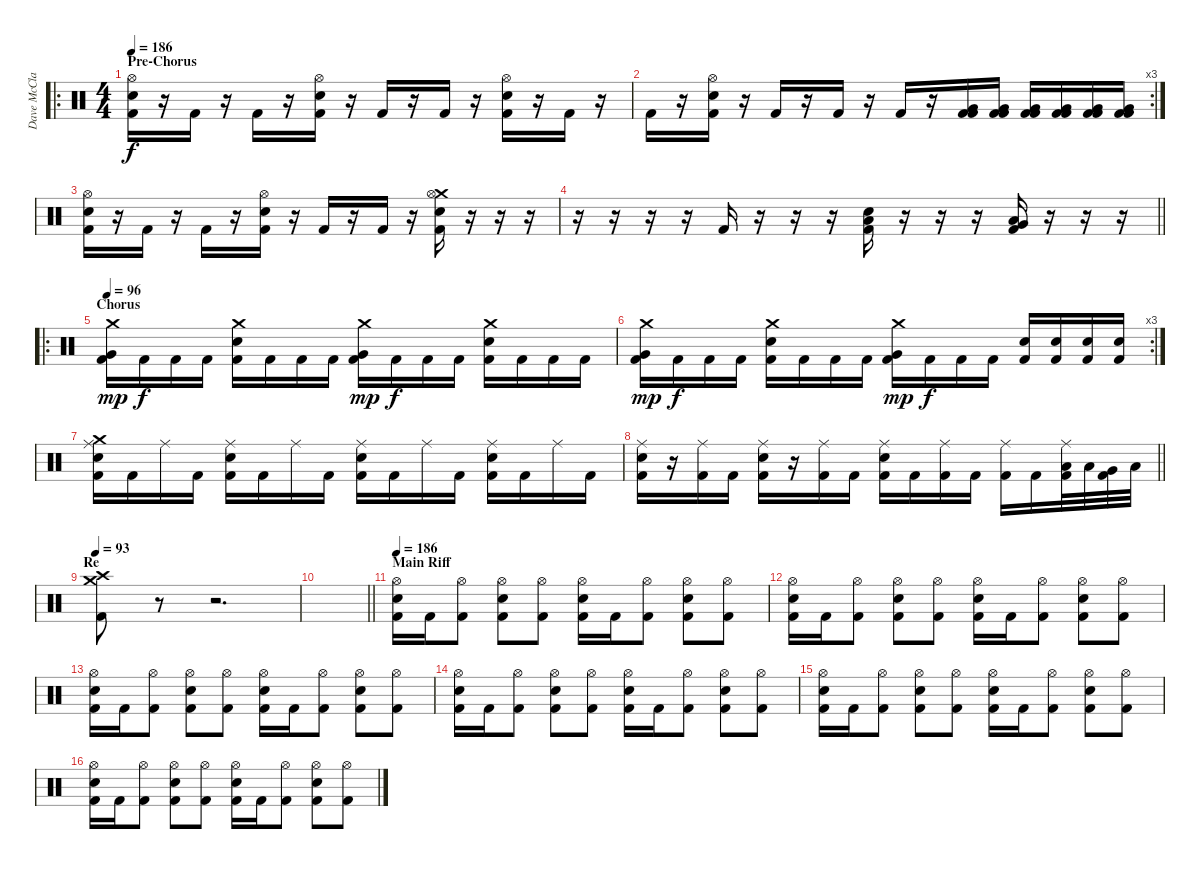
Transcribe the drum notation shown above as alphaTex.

\track ("Dave McClain" "Dave McCla") {instrument percussion}
\staff {score}
\articulation defaults
\ro
\ts (4 4)
\section ("" "Pre-Chorus")
\tempo 186
\clef neutral
\ks c
("Hi-Hat (open)" "Snare (hit) 2" "Kick (hit) 2").16{dy f} r.16 "Kick (hit) 2".16 r.16 "Kick (hit) 2".16 r.16 ("Hi-Hat (open)" "Snare (hit) 2" "Kick (hit) 2").16 r.16 "Kick (hit) 2".16 r.16 "Kick (hit) 2".16 r.16 ("Hi-Hat (open)" "Snare (hit) 2" "Kick (hit) 2").16 r.16 "Kick (hit) 2".16 r.16 |
\rc 3 "Kick (hit) 2".16
r.16 ("Hi-Hat (open)" "Snare (hit) 2" "Kick (hit) 2").16 r.16 "Kick (hit) 2".16 r.16 "Kick (hit) 2".16 r.16 "Kick (hit) 2".16 r.16 ("Very Low Tom (hit)" "Kick (hit) 2" "Kick (hit) 2").16 ("Very Low Tom (hit)" "Kick (hit) 2" "Kick (hit) 2").16 ("Very Low Tom (hit)" "Kick (hit) 2" "Kick (hit) 2").16 ("Very Low Tom (hit)" "Kick (hit) 2" "Kick (hit) 2").16 ("Very Low Tom (hit)" "Kick (hit) 2" "Kick (hit) 2").16 ("Very Low Tom (hit)" "Kick (hit) 2" "Kick (hit) 2").16 |
("Hi-Hat (open)" "Snare (hit) 2" "Kick (hit) 2").16 r.16 "Kick (hit) 2".16 r.16 "Kick (hit) 2".16 r.16 ("Hi-Hat (open)" "Snare (hit) 2" "Kick (hit) 2").16 r.16 "Kick (hit) 2".16 r.16 "Kick (hit) 2".16 r.16 ("Crash medium (hit)" "Hi-Hat (open)" "Snare (hit) 2" "Kick (hit) 2").16 r.16 r.16 r.16 |
\barLineRight lightlight
r.16 r.16 r.16 r.16 "Kick (hit) 2".16 r.16 r.16 r.16 ("Low Tom (hit)" "Snare (hit) 2" "Kick (hit) 2").16 r.16 r.16 r.16 ("Very Low Tom (hit)" "Low Tom (hit)" "Kick (hit) 2").16 r.16 r.16 r.16 |
\ro
\section ("" "Chorus")
\tempo 96
("Crash medium (hit)" "Very Low Tom (hit)" "Kick (hit) 2").16{dy mp} "Kick (hit) 2".16{dy f} "Kick (hit) 2".16 "Kick (hit) 2".16 ("Crash medium (hit)" "Snare (hit) 2" "Kick (hit) 2").16 "Kick (hit) 2".16 "Kick (hit) 2".16 "Kick (hit) 2".16 ("Crash medium (hit)" "Very Low Tom (hit)" "Kick (hit) 2").16{dy mp} "Kick (hit) 2".16{dy f} "Kick (hit) 2".16 "Kick (hit) 2".16 ("Crash medium (hit)" "Snare (hit) 2" "Kick (hit) 2").16 "Kick (hit) 2".16 "Kick (hit) 2".16 "Kick (hit) 2".16 |
\rc 3
("Crash medium (hit)" "Very Low Tom (hit)" "Kick (hit) 2").16{dy mp} "Kick (hit) 2".16{dy f} "Kick (hit) 2".16 "Kick (hit) 2".16 ("Crash medium (hit)" "Snare (hit) 2" "Kick (hit) 2").16 "Kick (hit) 2".16 "Kick (hit) 2".16 "Kick (hit) 2".16 ("Crash medium (hit)" "Very Low Tom (hit)" "Kick (hit) 2").16{dy mp} "Kick (hit) 2".16{dy f} "Kick (hit) 2".16 "Kick (hit) 2".16 ("Snare (hit) 2" "Kick (hit) 2").16 ("Snare (hit) 2" "Kick (hit) 2").16 ("Snare (hit) 2" "Kick (hit) 2").16 ("Snare (hit) 2" "Kick (hit) 2").16 |
("Crash medium (hit)" "Ride (middle)" "Snare (hit) 2" "Kick (hit) 2").16 "Kick (hit) 2".16 "Ride (middle)".16 "Kick (hit) 2".16 ("Ride (middle)" "Snare (hit) 2" "Kick (hit) 2").16 "Kick (hit) 2".16 "Ride (middle)".16 "Kick (hit) 2".16 ("Ride (middle)" "Snare (hit) 2" "Kick (hit) 2").16 "Kick (hit) 2".16 "Ride (middle)".16 "Kick (hit) 2".16 ("Ride (middle)" "Snare (hit) 2" "Kick (hit) 2").16 "Kick (hit) 2".16 "Ride (middle)".16 "Kick (hit) 2".16 |
\barLineRight lightlight
("Ride (middle)" "Snare (hit) 2" "Kick (hit) 2").16 r.16 ("Ride (middle)" "Kick (hit) 2").16 "Kick (hit) 2".16 ("Ride (middle)" "Snare (hit) 2" "Kick (hit) 2").16 r.16 ("Ride (middle)" "Kick (hit) 2").16 "Kick (hit) 2".16 ("Ride (middle)" "Snare (hit) 2" "Kick (hit) 2").16 "Kick (hit) 2".16 ("Ride (middle)" "Kick (hit) 2").16 "Kick (hit) 2".16 ("Ride (middle)" "Kick (hit) 2").16 "Kick (hit) 2".16 ("Ride (middle)" "Low Tom (hit)" "Kick (hit) 2").32 "Low Tom (hit)".32 ("Very Low Tom (hit)" "Kick (hit) 2").32 "Low Floor Tom (hit)".32 |
\section ("" "Re")
\tempo 93
("Crash high (hit)" "Crash medium (hit)" "Kick (hit) 2").8 r.8 r.2{d} |
\barLineRight lightlight
|
\section ("" "Main Riff")
\tempo 186
("Hi-Hat (open)" "Snare (hit) 2" "Kick (hit) 2").16 "Kick (hit) 2".16 ("Hi-Hat (open)" "Kick (hit) 2").8 ("Hi-Hat (open)" "Snare (hit) 2" "Kick (hit) 2").8 ("Hi-Hat (open)" "Kick (hit) 2").8 ("Hi-Hat (open)" "Snare (hit) 2" "Kick (hit) 2").16 "Kick (hit) 2".16 ("Hi-Hat (open)" "Kick (hit) 2").8 ("Hi-Hat (open)" "Snare (hit) 2" "Kick (hit) 2").8 ("Hi-Hat (open)" "Kick (hit) 2").8 |
("Hi-Hat (open)" "Snare (hit) 2" "Kick (hit) 2").16 "Kick (hit) 2".16 ("Hi-Hat (open)" "Kick (hit) 2").8 ("Hi-Hat (open)" "Snare (hit) 2" "Kick (hit) 2").8 ("Hi-Hat (open)" "Kick (hit) 2").8 ("Hi-Hat (open)" "Snare (hit) 2" "Kick (hit) 2").16 "Kick (hit) 2".16 ("Hi-Hat (open)" "Kick (hit) 2").8 ("Hi-Hat (open)" "Snare (hit) 2" "Kick (hit) 2").8 ("Hi-Hat (open)" "Kick (hit) 2").8 |
("Hi-Hat (open)" "Snare (hit) 2" "Kick (hit) 2").16 "Kick (hit) 2".16 ("Hi-Hat (open)" "Kick (hit) 2").8 ("Hi-Hat (open)" "Snare (hit) 2" "Kick (hit) 2").8 ("Hi-Hat (open)" "Kick (hit) 2").8 ("Hi-Hat (open)" "Snare (hit) 2" "Kick (hit) 2").16 "Kick (hit) 2".16 ("Hi-Hat (open)" "Kick (hit) 2").8 ("Hi-Hat (open)" "Snare (hit) 2" "Kick (hit) 2").8 ("Hi-Hat (open)" "Kick (hit) 2").8 |
("Hi-Hat (open)" "Snare (hit) 2" "Kick (hit) 2").16 "Kick (hit) 2".16 ("Hi-Hat (open)" "Kick (hit) 2").8 ("Hi-Hat (open)" "Snare (hit) 2" "Kick (hit) 2").8 ("Hi-Hat (open)" "Kick (hit) 2").8 ("Hi-Hat (open)" "Snare (hit) 2" "Kick (hit) 2").16 "Kick (hit) 2".16 ("Hi-Hat (open)" "Kick (hit) 2").8 ("Hi-Hat (open)" "Snare (hit) 2" "Kick (hit) 2").8 ("Hi-Hat (open)" "Kick (hit) 2").8 |
("Hi-Hat (open)" "Snare (hit) 2" "Kick (hit) 2").16 "Kick (hit) 2".16 ("Hi-Hat (open)" "Kick (hit) 2").8 ("Hi-Hat (open)" "Snare (hit) 2" "Kick (hit) 2").8 ("Hi-Hat (open)" "Kick (hit) 2").8 ("Hi-Hat (open)" "Snare (hit) 2" "Kick (hit) 2").16 "Kick (hit) 2".16 ("Hi-Hat (open)" "Kick (hit) 2").8 ("Hi-Hat (open)" "Snare (hit) 2" "Kick (hit) 2").8 ("Hi-Hat (open)" "Kick (hit) 2").8 |
("Hi-Hat (open)" "Snare (hit) 2" "Kick (hit) 2").16 "Kick (hit) 2".16 ("Hi-Hat (open)" "Kick (hit) 2").8 ("Hi-Hat (open)" "Snare (hit) 2" "Kick (hit) 2").8 ("Hi-Hat (open)" "Kick (hit) 2").8 ("Hi-Hat (open)" "Snare (hit) 2" "Kick (hit) 2").16 "Kick (hit) 2".16 ("Hi-Hat (open)" "Kick (hit) 2").8 ("Hi-Hat (open)" "Snare (hit) 2" "Kick (hit) 2").8 ("Hi-Hat (open)" "Kick (hit) 2").8
